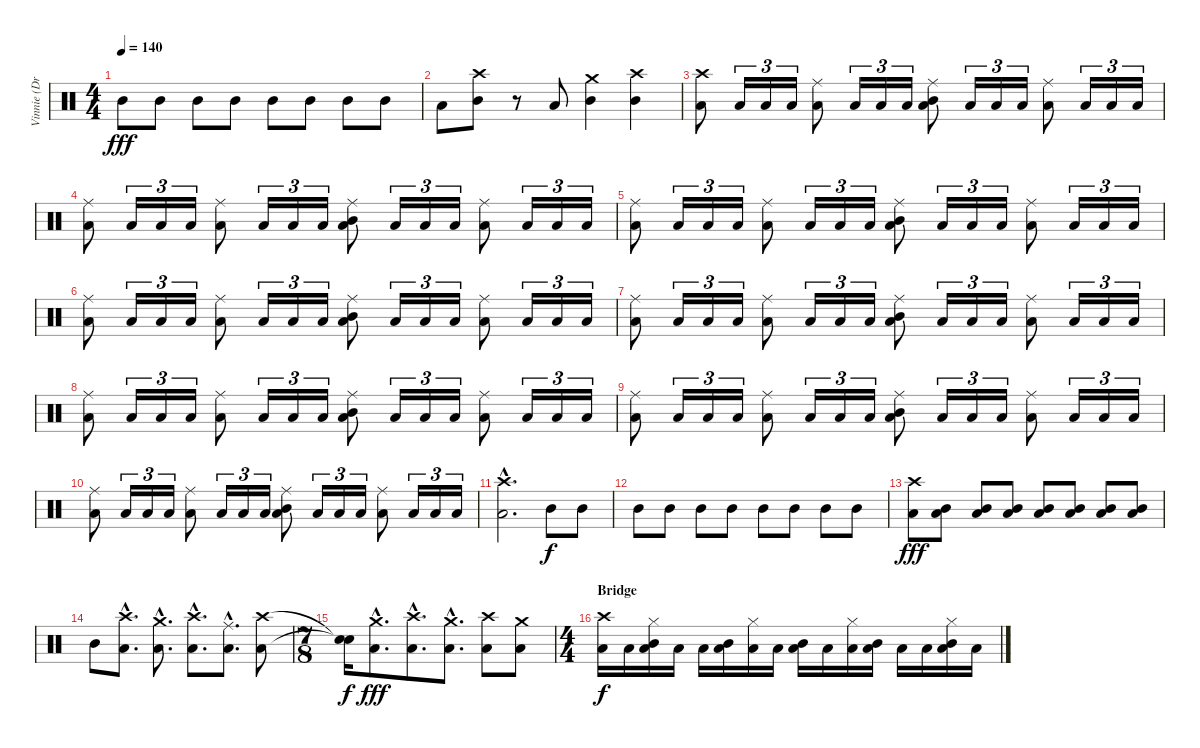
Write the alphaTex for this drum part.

\track ("Vinnie (Drums)" "Vinnie (Dr") {instrument percussion}
\staff {score}
\articulation defaults
\ts (4 4)
\tempo 140
\clef neutral
\ks c "Mid Tom (hit)".8{dy fff} "Mid Tom (hit)".8 "Mid Tom (hit)".8 "Mid Tom (hit)".8 "Mid Tom (hit)".8 "Mid Tom (hit)".8 "Mid Tom (hit)".8 "Mid Tom (hit)".8
|
"Low Floor Tom (hit)".8 ("Crash high (hit)" "Mid Tom (hit)").8 r.8 "Low Floor Tom (hit)".8 ("Crash medium (hit)" "Mid Tom (hit)").4 ("Crash high (hit)" "Mid Tom (hit)").4 |
("Crash high (hit)" "Low Floor Tom (hit)").8 "Low Floor Tom (hit)".16{tu (3 2)} "Low Floor Tom (hit)".16{tu (3 2)} "Low Floor Tom (hit)".16{tu (3 2)} ("Ride (middle)" "Low Floor Tom (hit)").8 "Low Floor Tom (hit)".16{tu (3 2)} "Low Floor Tom (hit)".16{tu (3 2)} "Low Floor Tom (hit)".16{tu (3 2)} ("Ride (middle)" "Mid Tom (hit)" "Low Floor Tom (hit)").8 "Low Floor Tom (hit)".16{tu (3 2)} "Low Floor Tom (hit)".16{tu (3 2)} "Low Floor Tom (hit)".16{tu (3 2)} ("Ride (middle)" "Low Floor Tom (hit)").8 "Low Floor Tom (hit)".16{tu (3 2)} "Low Floor Tom (hit)".16{tu (3 2)} "Low Floor Tom (hit)".16{tu (3 2)} |
("Ride (middle)" "Low Floor Tom (hit)").8 "Low Floor Tom (hit)".16{tu (3 2)} "Low Floor Tom (hit)".16{tu (3 2)} "Low Floor Tom (hit)".16{tu (3 2)} ("Ride (middle)" "Low Floor Tom (hit)").8 "Low Floor Tom (hit)".16{tu (3 2)} "Low Floor Tom (hit)".16{tu (3 2)} "Low Floor Tom (hit)".16{tu (3 2)} ("Ride (middle)" "Mid Tom (hit)" "Low Floor Tom (hit)").8 "Low Floor Tom (hit)".16{tu (3 2)} "Low Floor Tom (hit)".16{tu (3 2)} "Low Floor Tom (hit)".16{tu (3 2)} ("Ride (middle)" "Low Floor Tom (hit)").8 "Low Floor Tom (hit)".16{tu (3 2)} "Low Floor Tom (hit)".16{tu (3 2)} "Low Floor Tom (hit)".16{tu (3 2)} |
("Ride (middle)" "Low Floor Tom (hit)").8 "Low Floor Tom (hit)".16{tu (3 2)} "Low Floor Tom (hit)".16{tu (3 2)} "Low Floor Tom (hit)".16{tu (3 2)} ("Ride (middle)" "Low Floor Tom (hit)").8 "Low Floor Tom (hit)".16{tu (3 2)} "Low Floor Tom (hit)".16{tu (3 2)} "Low Floor Tom (hit)".16{tu (3 2)} ("Ride (middle)" "Mid Tom (hit)" "Low Floor Tom (hit)").8 "Low Floor Tom (hit)".16{tu (3 2)} "Low Floor Tom (hit)".16{tu (3 2)} "Low Floor Tom (hit)".16{tu (3 2)} ("Ride (middle)" "Low Floor Tom (hit)").8 "Low Floor Tom (hit)".16{tu (3 2)} "Low Floor Tom (hit)".16{tu (3 2)} "Low Floor Tom (hit)".16{tu (3 2)} |
("Ride (middle)" "Low Floor Tom (hit)").8 "Low Floor Tom (hit)".16{tu (3 2)} "Low Floor Tom (hit)".16{tu (3 2)} "Low Floor Tom (hit)".16{tu (3 2)} ("Ride (middle)" "Low Floor Tom (hit)").8 "Low Floor Tom (hit)".16{tu (3 2)} "Low Floor Tom (hit)".16{tu (3 2)} "Low Floor Tom (hit)".16{tu (3 2)} ("Ride (middle)" "Mid Tom (hit)" "Low Floor Tom (hit)").8 "Low Floor Tom (hit)".16{tu (3 2)} "Low Floor Tom (hit)".16{tu (3 2)} "Low Floor Tom (hit)".16{tu (3 2)} ("Ride (middle)" "Low Floor Tom (hit)").8 "Low Floor Tom (hit)".16{tu (3 2)} "Low Floor Tom (hit)".16{tu (3 2)} "Low Floor Tom (hit)".16{tu (3 2)} |
("Ride (middle)" "Low Floor Tom (hit)").8 "Low Floor Tom (hit)".16{tu (3 2)} "Low Floor Tom (hit)".16{tu (3 2)} "Low Floor Tom (hit)".16{tu (3 2)} ("Ride (middle)" "Low Floor Tom (hit)").8 "Low Floor Tom (hit)".16{tu (3 2)} "Low Floor Tom (hit)".16{tu (3 2)} "Low Floor Tom (hit)".16{tu (3 2)} ("Ride (middle)" "Mid Tom (hit)" "Low Floor Tom (hit)").8 "Low Floor Tom (hit)".16{tu (3 2)} "Low Floor Tom (hit)".16{tu (3 2)} "Low Floor Tom (hit)".16{tu (3 2)} ("Ride (middle)" "Low Floor Tom (hit)").8 "Low Floor Tom (hit)".16{tu (3 2)} "Low Floor Tom (hit)".16{tu (3 2)} "Low Floor Tom (hit)".16{tu (3 2)} |
("Ride (middle)" "Low Floor Tom (hit)").8 "Low Floor Tom (hit)".16{tu (3 2)} "Low Floor Tom (hit)".16{tu (3 2)} "Low Floor Tom (hit)".16{tu (3 2)} ("Ride (middle)" "Low Floor Tom (hit)").8 "Low Floor Tom (hit)".16{tu (3 2)} "Low Floor Tom (hit)".16{tu (3 2)} "Low Floor Tom (hit)".16{tu (3 2)} ("Ride (middle)" "Mid Tom (hit)" "Low Floor Tom (hit)").8 "Low Floor Tom (hit)".16{tu (3 2)} "Low Floor Tom (hit)".16{tu (3 2)} "Low Floor Tom (hit)".16{tu (3 2)} ("Ride (middle)" "Low Floor Tom (hit)").8 "Low Floor Tom (hit)".16{tu (3 2)} "Low Floor Tom (hit)".16{tu (3 2)} "Low Floor Tom (hit)".16{tu (3 2)} |
("Ride (middle)" "Low Floor Tom (hit)").8 "Low Floor Tom (hit)".16{tu (3 2)} "Low Floor Tom (hit)".16{tu (3 2)} "Low Floor Tom (hit)".16{tu (3 2)} ("Ride (middle)" "Low Floor Tom (hit)").8 "Low Floor Tom (hit)".16{tu (3 2)} "Low Floor Tom (hit)".16{tu (3 2)} "Low Floor Tom (hit)".16{tu (3 2)} ("Ride (middle)" "Mid Tom (hit)" "Low Floor Tom (hit)").8 "Low Floor Tom (hit)".16{tu (3 2)} "Low Floor Tom (hit)".16{tu (3 2)} "Low Floor Tom (hit)".16{tu (3 2)} ("Ride (middle)" "Low Floor Tom (hit)").8 "Low Floor Tom (hit)".16{tu (3 2)} "Low Floor Tom (hit)".16{tu (3 2)} "Low Floor Tom (hit)".16{tu (3 2)} |
("Ride (middle)" "Low Floor Tom (hit)").8 "Low Floor Tom (hit)".16{tu (3 2)} "Low Floor Tom (hit)".16{tu (3 2)} "Low Floor Tom (hit)".16{tu (3 2)} ("Ride (middle)" "Low Floor Tom (hit)").8 "Low Floor Tom (hit)".16{tu (3 2)} "Low Floor Tom (hit)".16{tu (3 2)} "Low Floor Tom (hit)".16{tu (3 2)} ("Ride (middle)" "Mid Tom (hit)" "Low Floor Tom (hit)").8 "Low Floor Tom (hit)".16{tu (3 2)} "Low Floor Tom (hit)".16{tu (3 2)} "Low Floor Tom (hit)".16{tu (3 2)} ("Ride (middle)" "Low Floor Tom (hit)").8 "Low Floor Tom (hit)".16{tu (3 2)} "Low Floor Tom (hit)".16{tu (3 2)} "Low Floor Tom (hit)".16{tu (3 2)} |
("Crash high (hit)"{hac} "Low Floor Tom (hit)"{hac}).2{d} "Mid Tom (hit)".8{dy f} "Mid Tom (hit)".8 |
"Mid Tom (hit)".8 "Mid Tom (hit)".8 "Mid Tom (hit)".8 "Mid Tom (hit)".8 "Mid Tom (hit)".8 "Mid Tom (hit)".8 "Mid Tom (hit)".8 "Mid Tom (hit)".8 |
("Crash high (hit)" "Low Floor Tom (hit)").8{dy fff} ("Mid Tom (hit)" "Low Floor Tom (hit)").8 ("Mid Tom (hit)" "Low Floor Tom (hit)").8 ("Mid Tom (hit)" "Low Floor Tom (hit)").8 ("Mid Tom (hit)" "Low Floor Tom (hit)").8 ("Mid Tom (hit)" "Low Floor Tom (hit)").8 ("Mid Tom (hit)" "Low Floor Tom (hit)").8 ("Mid Tom (hit)" "Low Floor Tom (hit)").8 |
"Mid Tom (hit)".8 ("Crash high (hit)"{hac} "Low Floor Tom (hit)"{hac}).8{d} ("Crash medium (hit)"{hac} "Low Floor Tom (hit)"{hac}).8{d} ("Crash high (hit)"{hac} "Low Floor Tom (hit)"{hac}).8{d} ("Ride (middle)"{hac} "Low Floor Tom (hit)"{hac}).8{d} ("Crash high (hit)" "Low Floor Tom (hit)").8 |
\ts (7 8)
("Snare (hit)"{t} "Snare (hit)"{t}).16{dy f} ("Crash medium (hit)"{hac} "Low Floor Tom (hit)"{hac}).8{d dy fff} ("Crash high (hit)"{hac} "Low Floor Tom (hit)"{hac}).8{d} ("Crash medium (hit)"{hac} "Low Floor Tom (hit)"{hac}).8{d} ("Crash high (hit)" "Low Floor Tom (hit)").8 ("Crash medium (hit)" "Low Floor Tom (hit)").8 |
\ts (4 4)
\section ("" "Bridge")
("Crash high (hit)" "Low Floor Tom (hit)").16{dy f} "Low Floor Tom (hit)".16 ("Hi-Hat (closed)" "Mid Tom (hit)" "Low Floor Tom (hit)").16 "Low Floor Tom (hit)".16 "Low Floor Tom (hit)".16 ("Mid Tom (hit)" "Low Floor Tom (hit)").16 ("Hi-Hat (closed)" "Low Floor Tom (hit)").16 "Low Floor Tom (hit)".16 ("Mid Tom (hit)" "Low Floor Tom (hit)").16 "Low Floor Tom (hit)".16 ("Hi-Hat (closed)" "Low Floor Tom (hit)").16 ("Mid Tom (hit)" "Low Floor Tom (hit)").16 "Low Floor Tom (hit)".16 "Low Floor Tom (hit)".16 ("Hi-Hat (closed)" "Mid Tom (hit)" "Low Floor Tom (hit)").16 "Low Floor Tom (hit)".16
